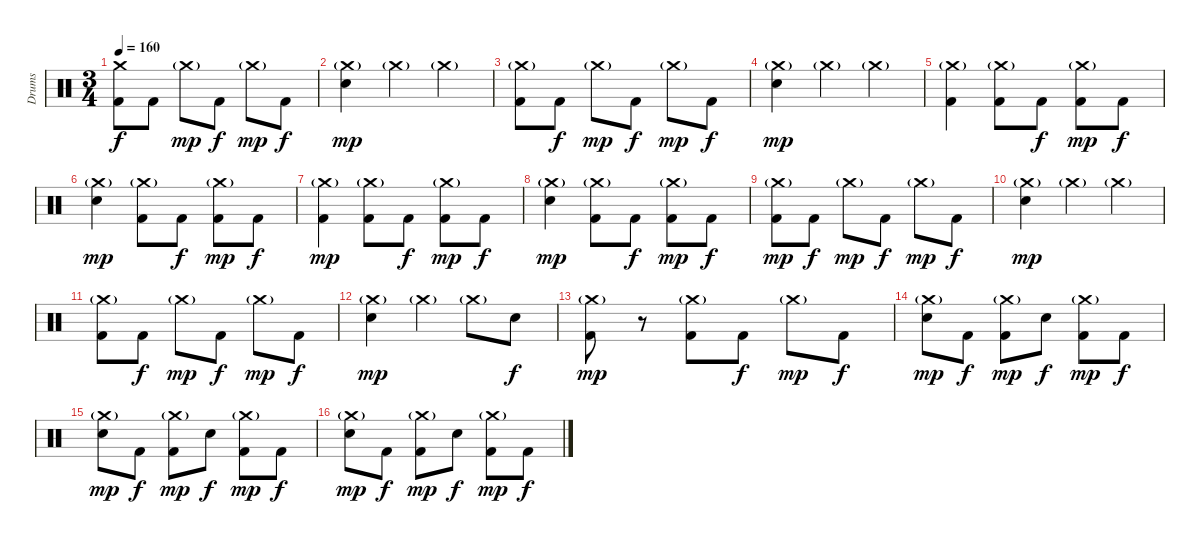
\track ("Drums" "Drums") {instrument percussion}
\staff {score}
\articulation defaults
\ts (3 4)
\tempo 160
\clef neutral
\ks c
("Crash medium (hit)" "Kick (hit) 2").8{dy f} "Kick (hit) 2".8 "Crash medium (hit)"{g}.8{dy mp} "Kick (hit) 2".8{dy f} "Crash medium (hit)"{g}.8{dy mp} "Kick (hit) 2".8{dy f} |
("Crash medium (hit)"{g} "Snare (hit) 2").4{dy mp} "Crash medium (hit)"{g}.4 "Crash medium (hit)"{g}.4 |
("Crash medium (hit)"{g} "Kick (hit) 2").8 "Kick (hit) 2".8{dy f} "Crash medium (hit)"{g}.8{dy mp} "Kick (hit) 2".8{dy f} "Crash medium (hit)"{g}.8{dy mp} "Kick (hit) 2".8{dy f} |
("Crash medium (hit)"{g} "Snare (hit) 2").4{dy mp} "Crash medium (hit)"{g}.4 "Crash medium (hit)"{g}.4 |
("Crash medium (hit)"{g} "Kick (hit) 2").4 ("Crash medium (hit)"{g} "Kick (hit) 2").8 "Kick (hit) 2".8{dy f} ("Crash medium (hit)"{g} "Kick (hit) 2").8{dy mp} "Kick (hit) 2".8{dy f} |
("Crash medium (hit)"{g} "Snare (hit) 2").4{dy mp} ("Crash medium (hit)"{g} "Kick (hit) 2").8 "Kick (hit) 2".8{dy f} ("Crash medium (hit)"{g} "Kick (hit) 2").8{dy mp} "Kick (hit) 2".8{dy f} |
("Crash medium (hit)"{g} "Kick (hit) 2").4{dy mp} ("Crash medium (hit)"{g} "Kick (hit) 2").8 "Kick (hit) 2".8{dy f} ("Crash medium (hit)"{g} "Kick (hit) 2").8{dy mp} "Kick (hit) 2".8{dy f} |
("Crash medium (hit)"{g} "Snare (hit) 2").4{dy mp} ("Crash medium (hit)"{g} "Kick (hit) 2").8 "Kick (hit) 2".8{dy f} ("Crash medium (hit)"{g} "Kick (hit) 2").8{dy mp} "Kick (hit) 2".8{dy f} |
("Crash medium (hit)"{g} "Kick (hit) 2").8{dy mp} "Kick (hit) 2".8{dy f} "Crash medium (hit)"{g}.8{dy mp} "Kick (hit) 2".8{dy f} "Crash medium (hit)"{g}.8{dy mp} "Kick (hit) 2".8{dy f} |
("Crash medium (hit)"{g} "Snare (hit) 2").4{dy mp} "Crash medium (hit)"{g}.4 "Crash medium (hit)"{g}.4 |
("Crash medium (hit)"{g} "Kick (hit) 2").8 "Kick (hit) 2".8{dy f} "Crash medium (hit)"{g}.8{dy mp} "Kick (hit) 2".8{dy f} "Crash medium (hit)"{g}.8{dy mp} "Kick (hit) 2".8{dy f} |
("Crash medium (hit)"{g} "Snare (hit) 2").4{dy mp} "Crash medium (hit)"{g}.4 "Crash medium (hit)"{g}.8 "Snare (hit) 2".8{dy f} |
("Crash medium (hit)"{g} "Kick (hit) 2").8{dy mp} r.8 ("Crash medium (hit)"{g} "Kick (hit) 2").8 "Kick (hit) 2".8{dy f} "Crash medium (hit)"{g}.8{dy mp} "Kick (hit) 2".8{dy f} |
("Crash medium (hit)"{g} "Snare (hit) 2").8{dy mp} "Kick (hit) 2".8{dy f} ("Crash medium (hit)"{g} "Kick (hit) 2").8{dy mp} "Snare (hit) 2".8{dy f} ("Crash medium (hit)"{g} "Kick (hit) 2").8{dy mp} "Kick (hit) 2".8{dy f} |
("Crash medium (hit)"{g} "Snare (hit) 2").8{dy mp} "Kick (hit) 2".8{dy f} ("Crash medium (hit)"{g} "Kick (hit) 2").8{dy mp} "Snare (hit) 2".8{dy f} ("Crash medium (hit)"{g} "Kick (hit) 2").8{dy mp} "Kick (hit) 2".8{dy f} |
("Crash medium (hit)"{g} "Snare (hit) 2").8{dy mp} "Kick (hit) 2".8{dy f} ("Crash medium (hit)"{g} "Kick (hit) 2").8{dy mp} "Snare (hit) 2".8{dy f} ("Crash medium (hit)"{g} "Kick (hit) 2").8{dy mp} "Kick (hit) 2".8{dy f}
